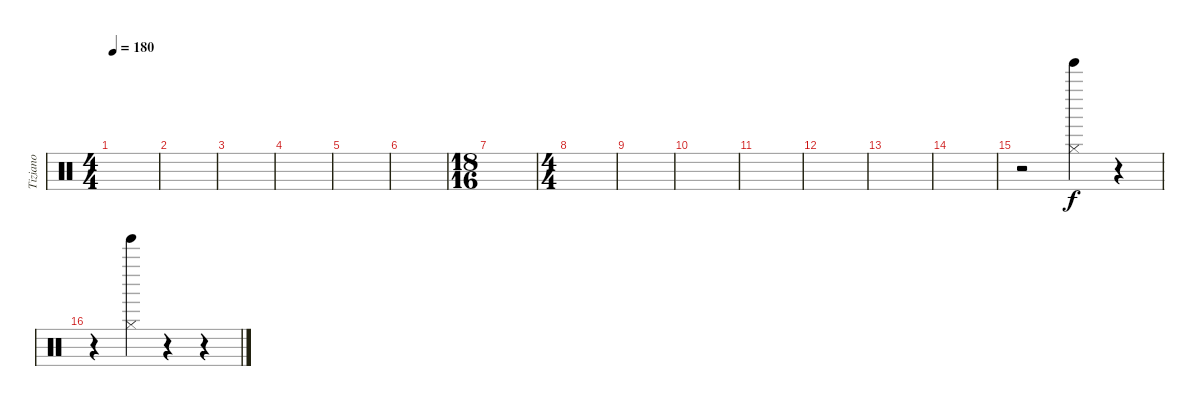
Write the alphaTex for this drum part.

\track ("Tiziano" "Tiziano") {instrument percussion}
\staff {score}
\articulation defaults
\ts (4 4)
\tempo 180
\clef neutral
\ks c
|
|
|
|
|
|
\ts (18 16)
|
\ts (4 4)
|
|
|
|
|
|
|
r.2 ("Hi-Hat (closed)" "Tinkle Bell (hit)").4 r.4 |
r.4 ("Hi-Hat (closed)" "Tinkle Bell (hit)").4 r.4 r.4
